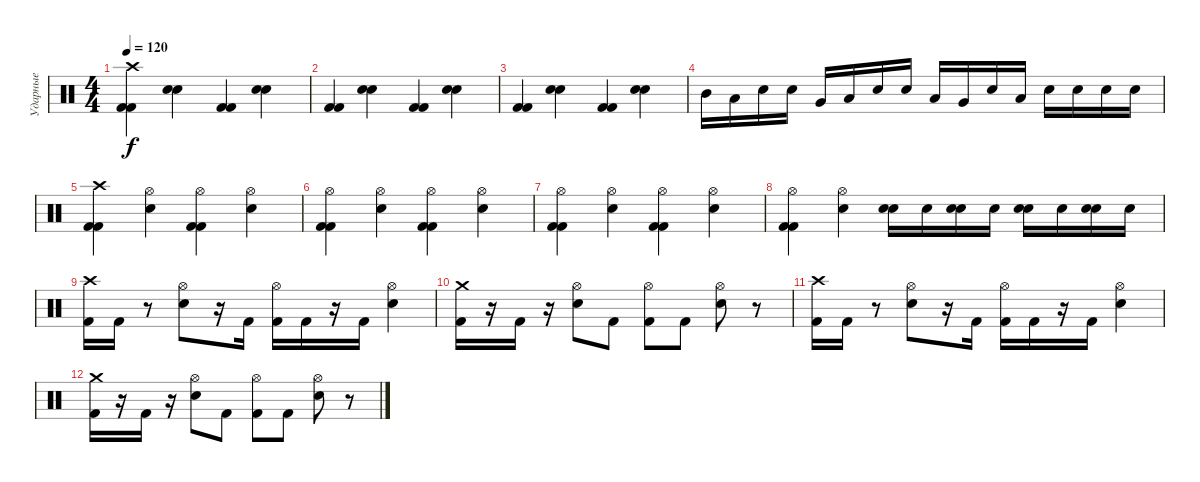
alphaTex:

\track ("Ударные" "Ударные") {instrument percussion}
\staff {score}
\articulation defaults
\ts (4 4)
\tempo 120
\clef neutral
\ks c
("Crash high (hit)" "Kick (hit) 2" "Kick (hit) 2").4{dy f} ("Electric Snare (hit)" "Electric Snare (hit)").4 ("Kick (hit) 2" "Kick (hit) 2").4 ("Electric Snare (hit)" "Electric Snare (hit)").4 |
("Kick (hit) 2" "Kick (hit) 2").4 ("Electric Snare (hit)" "Electric Snare (hit)").4 ("Kick (hit) 2" "Kick (hit) 2").4 ("Electric Snare (hit)" "Electric Snare (hit)").4 |
("Kick (hit) 2" "Kick (hit) 2").4 ("Electric Snare (hit)" "Electric Snare (hit)").4 ("Kick (hit) 2" "Kick (hit) 2").4 ("Electric Snare (hit)" "Electric Snare (hit)").4 |
"Mid Tom (hit)".16 "Low Tom (hit)".16 "Electric Snare (hit)".16 "Electric Snare (hit)".16 "Very Low Tom (hit)".16 "Low Floor Tom (hit)".16 "Electric Snare (hit)".16 "Electric Snare (hit)".16 "Low Floor Tom (hit)".16 "Very Low Tom (hit)".16 "Electric Snare (hit)".16 "Low Floor Tom (hit)".16 "Electric Snare (hit)".16 "Electric Snare (hit)".16 "Electric Snare (hit)".16 "Electric Snare (hit)".16 |
("Crash high (hit)" "Kick (hit) 2" "Kick (hit) 2").4 ("Snare (hit) 2" "Hi-Hat (open)").4 ("Hi-Hat (open)" "Kick (hit) 2" "Kick (hit) 2").4 ("Snare (hit) 2" "Hi-Hat (open)").4 |
("Hi-Hat (open)" "Kick (hit) 2" "Kick (hit) 2").4 ("Snare (hit) 2" "Hi-Hat (open)").4 ("Hi-Hat (open)" "Kick (hit) 2" "Kick (hit) 2").4 ("Snare (hit) 2" "Hi-Hat (open)").4 |
("Hi-Hat (open)" "Kick (hit) 2" "Kick (hit) 2").4 ("Snare (hit) 2" "Hi-Hat (open)").4 ("Hi-Hat (open)" "Kick (hit) 2" "Kick (hit) 2").4 ("Snare (hit) 2" "Hi-Hat (open)").4 |
("Hi-Hat (open)" "Kick (hit) 2" "Kick (hit) 2").4 ("Hi-Hat (open)" "Snare (hit) 2").4 ("Snare (hit) 2" "Electric Snare (hit)").16 "Snare (hit) 2".16 ("Snare (hit) 2" "Electric Snare (hit)").16 "Snare (hit) 2".16 ("Snare (hit) 2" "Electric Snare (hit)").16 "Snare (hit) 2".16 ("Snare (hit) 2" "Electric Snare (hit)").16 "Snare (hit) 2".16 |
("Kick (hit) 2" "Crash high (hit)").16 "Kick (hit) 2".16 r.8 ("Electric Snare (hit)" "Hi-Hat (open)").8 r.16 "Kick (hit) 2".16 ("Kick (hit) 2" "Hi-Hat (open)").16 "Kick (hit) 2".16 r.16 "Kick (hit) 2".16 ("Electric Snare (hit)" "Hi-Hat (open)").4 |
("Kick (hit) 2" "Crash medium (hit)").16 r.16 "Kick (hit) 2".16 r.16 ("Electric Snare (hit)" "Hi-Hat (open)").8 "Kick (hit) 2".8 ("Kick (hit) 2" "Hi-Hat (open)").8 "Kick (hit) 2".8 ("Electric Snare (hit)" "Hi-Hat (open)").8 r.8 |
("Kick (hit) 2" "Crash high (hit)").16 "Kick (hit) 2".16 r.8 ("Electric Snare (hit)" "Hi-Hat (open)").8 r.16 "Kick (hit) 2".16 ("Kick (hit) 2" "Hi-Hat (open)").16 "Kick (hit) 2".16 r.16 "Kick (hit) 2".16 ("Electric Snare (hit)" "Hi-Hat (open)").4 |
("Kick (hit) 2" "Crash medium (hit)").16 r.16 "Kick (hit) 2".16 r.16 ("Electric Snare (hit)" "Hi-Hat (open)").8 "Kick (hit) 2".8 ("Kick (hit) 2" "Hi-Hat (open)").8 "Kick (hit) 2".8 ("Electric Snare (hit)" "Hi-Hat (open)").8 r.8
